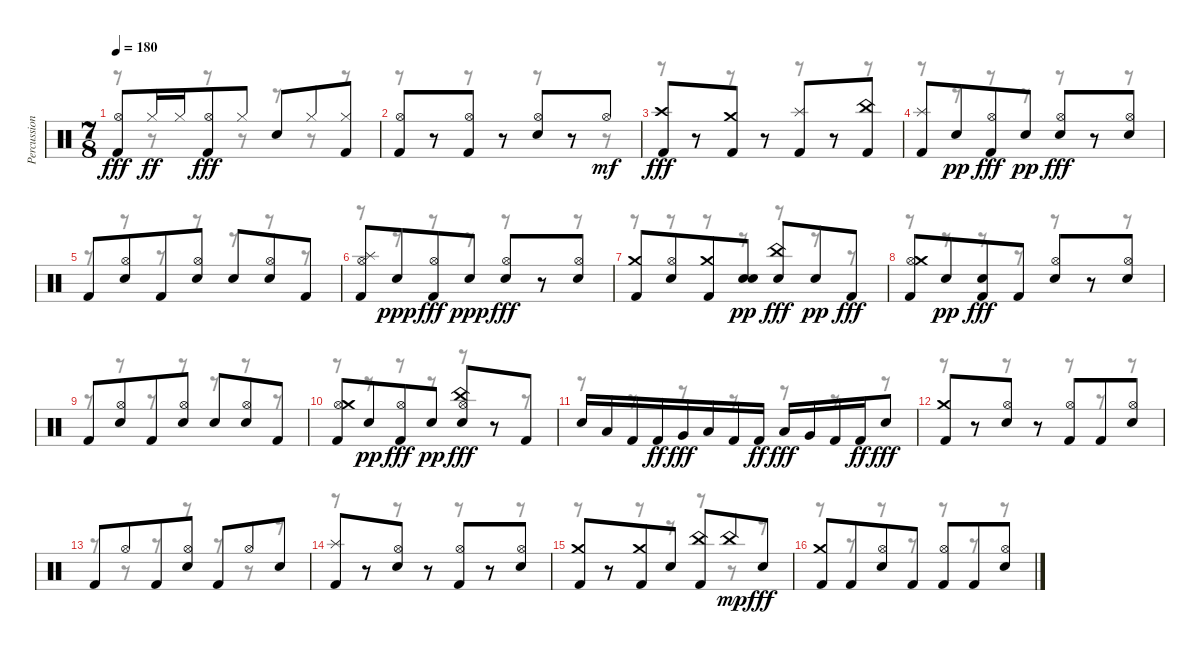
\track ("Percussion" "Percussion") {instrument percussion}
\staff {score}
\articulation defaults
\voice
\ts (7 8)
\tempo 180
\clef neutral
\ks c
("Hi-Hat (open)" "Kick (hit) 2").8{dy fff} "Hi-Hat (closed)".16{dy ff} "Hi-Hat (closed)".16 ("Hi-Hat (open)" "Kick (hit) 2").8{dy fff} "Hi-Hat (closed)".8 "Snare (hit) 2".8 "Hi-Hat (closed)".8 ("Kick (hit) 2" "Hi-Hat (closed)").8 |
("Kick (hit) 2" "Hi-Hat (open)").8 r.8 ("Kick (hit) 2" "Hi-Hat (open)").8 r.8 ("Hi-Hat (open)" "Snare (hit) 2").8 r.8 "Hi-Hat (open)".8{dy mf} |
("Kick (hit) 2" "Crash high (hit)").8{dy fff} r.8 ("Kick (hit) 2" "Crash medium (hit)").8 r.8 ("Kick (hit) 2" "Splash (hit)").8 r.8 ("Kick (hit) 2" "China (hit)").8 |
("Kick (hit) 2" "Splash (hit)").8 "Snare (hit) 2".8{dy pp} ("Hi-Hat (open)" "Kick (hit) 2").8{dy fff} "Snare (hit) 2".8{dy pp} ("Hi-Hat (open)" "Snare (hit) 2").8{dy fff} r.8 ("Hi-Hat (open)" "Snare (hit) 2").8 |
"Kick (hit) 2".8 ("Hi-Hat (open)" "Snare (hit) 2").8 "Kick (hit) 2".8 ("Hi-Hat (open)" "Snare (hit) 2").8 "Snare (hit) 2".8 ("Hi-Hat (open)" "Snare (hit) 2").8 "Kick (hit) 2".8 |
("Hi-Hat (open)" "Kick (hit) 2" "Splash (hit)").8 "Snare (hit) 2".8{dy ppp} ("Hi-Hat (open)" "Kick (hit) 2").8{dy fff} "Snare (hit) 2".8{dy ppp} ("Hi-Hat (open)" "Snare (hit) 2").8{dy fff} r.8 ("Hi-Hat (open)" "Snare (hit) 2").8 |
("Kick (hit) 2" "Crash medium (hit)").8 ("Hi-Hat (open)" "Snare (hit) 2").8 ("Kick (hit) 2" "Crash medium (hit)").8 ("Snare (hit) 2" "Snare (hit)").8{dy pp} ("Snare (hit) 2" "China (hit)").8{dy fff} "Snare (hit) 2".8{dy pp} "Kick (hit) 2".8{dy fff} |
("Hi-Hat (open)" "Kick (hit) 2" "Crash medium (hit)").8 "Snare (hit) 2".8{dy pp} ("Kick (hit) 2" "Snare (hit)").8{dy fff} "Kick (hit) 2".8 ("Hi-Hat (open)" "Snare (hit) 2").8 r.8 ("Hi-Hat (open)" "Snare (hit) 2").8 |
"Kick (hit) 2".8 ("Hi-Hat (open)" "Snare (hit) 2").8 "Kick (hit) 2".8 ("Hi-Hat (open)" "Snare (hit) 2").8 "Snare (hit) 2".8 ("Hi-Hat (open)" "Snare (hit) 2").8 "Kick (hit) 2".8 |
("Hi-Hat (open)" "Kick (hit) 2" "Crash medium (hit)").8 "Snare (hit) 2".8{dy pp} ("Hi-Hat (open)" "Kick (hit) 2").8{dy fff} "Snare (hit) 2".8{dy pp} ("Hi-Hat (open)" "Snare (hit) 2" "China (hit)").8{dy fff} r.8 "Kick (hit) 2".8 |
"Snare (hit) 2".16 "Low Floor Tom (hit)".16 "Kick (hit) 2".16 "Kick (hit) 2".16{dy ff} "Very Low Tom (hit)".16{dy fff} "Low Floor Tom (hit)".16 "Kick (hit) 2".16 "Kick (hit) 2".16{dy ff} "Low Tom (hit)".16{dy fff} "Very Low Tom (hit)".16 "Kick (hit) 2".16 "Kick (hit) 2".16{dy ff} "Snare (hit) 2".8{dy fff} |
("Kick (hit) 2" "Crash medium (hit)").8 r.8 ("Hi-Hat (open)" "Snare (hit) 2").8 r.8 ("Hi-Hat (open)" "Kick (hit) 2").8 "Kick (hit) 2".8 ("Hi-Hat (open)" "Snare (hit) 2").8 |
"Kick (hit) 2".8 "Hi-Hat (open)".8 "Kick (hit) 2".8 ("Hi-Hat (open)" "Snare (hit) 2").8 "Kick (hit) 2".8 "Hi-Hat (open)".8 "Snare (hit) 2".8 |
("Kick (hit) 2" "Splash (hit)").8 r.8 ("Hi-Hat (open)" "Snare (hit) 2").8 r.8 ("Hi-Hat (open)" "Kick (hit) 2").8 r.8 ("Hi-Hat (open)" "Snare (hit) 2").8 |
("Kick (hit) 2" "Crash medium (hit)").8 r.8 ("Kick (hit) 2" "Crash medium (hit)").8 "Snare (hit) 2".8 ("Kick (hit) 2" "China (hit)").8 "China (hit)".8{dy mp} "Snare (hit) 2".8{dy fff} |
("Kick (hit) 2" "Crash medium (hit)").8 "Kick (hit) 2".8 ("Hi-Hat (open)" "Snare (hit) 2").8 "Kick (hit) 2".8 ("Hi-Hat (open)" "Kick (hit) 2").8 "Kick (hit) 2".8 ("Hi-Hat (open)" "Snare (hit) 2").8
\voice
\clef neutral
\ottava regular
\simile none
\ks c
r.8{dy f} r.8 r.8 r.8 r.8 r.8 r.8 |
r.8 r.8 r.8 r.8 r.8 r.8 r.8 |
r.8 r.8 r.8 r.8 r.8 r.8 r.8 |
r.8 r.8 r.8 r.8 r.8 r.8 r.8 |
r.8 r.8 r.8 r.8 r.8 r.8 r.8 |
r.8 r.8 r.8 r.8 r.8 r.8 r.8 |
r.8 r.8 r.8 r.8 r.8 r.8 r.8 |
r.8 r.8 r.8 r.8 r.8 r.8 r.8 |
r.8 r.8 r.8 r.8 r.8 r.8 r.8 |
r.8 r.8 r.8 r.8 r.8 r.8 r.8 |
r.8 r.8 r.8 r.8 r.8 r.8 r.8 |
r.8 r.8 r.8 r.8 r.8 r.8 r.8 |
r.8 r.8 r.8 r.8 r.8 r.8 r.8 |
r.8 r.8 r.8 r.8 r.8 r.8 r.8 |
r.8 r.8 r.8 r.8 r.8 r.8 r.8 |
r.8 r.8 r.8 r.8 r.8 r.8 r.8
